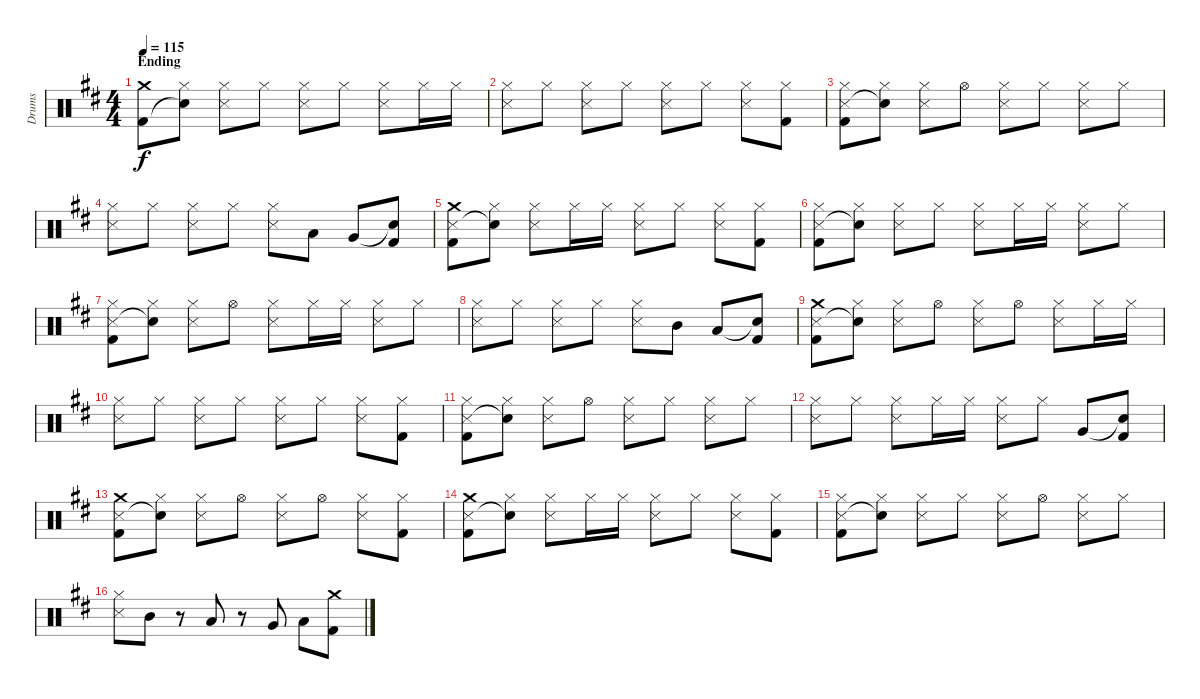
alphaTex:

\track ("Drums" "Drums") {instrument percussion}
\staff {score}
\articulation defaults
\ts (4 4)
\section ("" "Ending")
\tempo 115
\clef neutral
\ks d
("Crash medium (hit)" "Kick (hit) 2").8{dy f} ("Hi-Hat (closed)" "Snare (hit)"{t}).8 ("Hi-Hat (closed)" "Snare (side stick) 3").8 "Hi-Hat (closed)".8 ("Hi-Hat (closed)" "Snare (side stick) 3").8 "Hi-Hat (closed)".8 ("Hi-Hat (closed)" "Snare (side stick) 3").8 "Hi-Hat (closed)".16 "Hi-Hat (closed)".16 |
("Hi-Hat (closed)" "Snare (side stick) 3").8 "Hi-Hat (closed)".8 ("Hi-Hat (closed)" "Snare (side stick) 3").8 "Hi-Hat (closed)".8 ("Hi-Hat (closed)" "Snare (side stick) 3").8 "Hi-Hat (closed)".8 ("Hi-Hat (closed)" "Snare (side stick) 3").8 ("Hi-Hat (closed)" "Kick (hit) 2").8 |
("Hi-Hat (closed)" "Snare (side stick) 3" "Kick (hit) 2").8 ("Hi-Hat (closed)" "Snare (hit)"{t}).8 ("Hi-Hat (closed)" "Snare (side stick) 3").8 "Hi-Hat (open)".8 ("Hi-Hat (closed)" "Snare (side stick) 3").8 "Hi-Hat (closed)".8 ("Hi-Hat (closed)" "Snare (side stick) 3").8 "Hi-Hat (closed)".8 |
("Hi-Hat (closed)" "Snare (side stick) 3").8 "Hi-Hat (closed)".8 ("Hi-Hat (closed)" "Snare (side stick) 3").8 "Hi-Hat (closed)".8 ("Hi-Hat (closed)" "Snare (side stick) 3").8 "Low Tom (hit)".8 "Very Low Tom (hit)".8 ("Snare (hit)"{t} "Kick (hit) 2").8 |
("Crash medium (hit)" "Snare (side stick) 3" "Kick (hit) 2").8 ("Hi-Hat (closed)" "Snare (hit)"{t}).8 ("Hi-Hat (closed)" "Snare (side stick) 3").8 "Hi-Hat (closed)".16 "Hi-Hat (closed)".16 ("Hi-Hat (closed)" "Snare (side stick) 3").8 "Hi-Hat (closed)".8 ("Hi-Hat (closed)" "Snare (side stick) 3").8 ("Hi-Hat (closed)" "Kick (hit) 2").8 |
("Hi-Hat (closed)" "Snare (side stick) 3" "Kick (hit) 2").8 ("Hi-Hat (closed)" "Snare (hit)"{t}).8 ("Hi-Hat (closed)" "Snare (side stick) 3").8 "Hi-Hat (closed)".8 ("Hi-Hat (closed)" "Snare (side stick) 3").8 "Hi-Hat (closed)".16 "Hi-Hat (closed)".16 ("Hi-Hat (closed)" "Snare (side stick) 3").8 "Hi-Hat (closed)".8 |
("Hi-Hat (closed)" "Snare (side stick) 3" "Kick (hit) 2").8 ("Hi-Hat (closed)" "Snare (hit)"{t}).8 ("Hi-Hat (closed)" "Snare (side stick) 3").8 "Hi-Hat (open)".8 ("Hi-Hat (closed)" "Snare (side stick) 3").8 "Hi-Hat (closed)".16 "Hi-Hat (closed)".16 ("Hi-Hat (closed)" "Snare (side stick) 3").8 "Hi-Hat (closed)".8 |
("Hi-Hat (closed)" "Snare (side stick) 3").8 "Hi-Hat (closed)".8 ("Hi-Hat (closed)" "Snare (side stick) 3").8 "Hi-Hat (closed)".8 ("Hi-Hat (closed)" "Snare (side stick) 3").8 "Mid Tom (hit)".8 "Low Tom (hit)".8 ("Snare (hit)"{t} "Kick (hit) 2").8 |
("Crash medium (hit)" "Snare (side stick) 3" "Kick (hit) 2").8 ("Hi-Hat (closed)" "Snare (hit)"{t}).8 ("Hi-Hat (closed)" "Snare (side stick) 3").8 "Hi-Hat (open)".8 ("Hi-Hat (closed)" "Snare (side stick) 3").8 "Hi-Hat (open)".8 ("Hi-Hat (closed)" "Snare (side stick) 3").8 "Hi-Hat (closed)".16 "Hi-Hat (closed)".16 |
("Hi-Hat (closed)" "Snare (side stick) 3").8 "Hi-Hat (closed)".8 ("Hi-Hat (closed)" "Snare (side stick) 3").8 "Hi-Hat (closed)".8 ("Hi-Hat (closed)" "Snare (side stick) 3").8 "Hi-Hat (closed)".8 ("Hi-Hat (closed)" "Snare (side stick) 3").8 ("Hi-Hat (closed)" "Kick (hit) 2").8 |
("Hi-Hat (closed)" "Snare (side stick) 3" "Kick (hit) 2").8 ("Hi-Hat (closed)" "Snare (hit)"{t}).8 ("Hi-Hat (closed)" "Snare (side stick) 3").8 "Hi-Hat (open)".8 ("Hi-Hat (closed)" "Snare (side stick) 3").8 "Hi-Hat (closed)".8 ("Hi-Hat (closed)" "Snare (side stick) 3").8 "Hi-Hat (closed)".8 |
("Hi-Hat (closed)" "Snare (side stick) 3").8 "Hi-Hat (closed)".8 ("Hi-Hat (closed)" "Snare (side stick) 3").8 "Hi-Hat (closed)".16 "Hi-Hat (closed)".16 ("Hi-Hat (closed)" "Snare (side stick) 3").8 "Hi-Hat (closed)".8 "Very Low Tom (hit)".8 ("Snare (hit)"{t} "Kick (hit) 2").8 |
("Crash medium (hit)" "Snare (side stick) 3" "Kick (hit) 2").8 ("Hi-Hat (closed)" "Snare (hit)"{t}).8 ("Hi-Hat (closed)" "Snare (side stick) 3").8 "Hi-Hat (open)".8 ("Hi-Hat (closed)" "Snare (side stick) 3").8 "Hi-Hat (open)".8 ("Hi-Hat (closed)" "Snare (side stick) 3").8 ("Hi-Hat (closed)" "Kick (hit) 2").8 |
("Crash medium (hit)" "Snare (side stick) 3" "Kick (hit) 2").8 ("Hi-Hat (closed)" "Snare (hit)"{t}).8 ("Hi-Hat (closed)" "Snare (side stick) 3").8 "Hi-Hat (closed)".16 "Hi-Hat (closed)".16 ("Hi-Hat (closed)" "Snare (side stick) 3").8 "Hi-Hat (closed)".8 ("Hi-Hat (closed)" "Snare (side stick) 3").8 ("Hi-Hat (closed)" "Kick (hit) 2").8 |
("Hi-Hat (closed)" "Snare (side stick) 3" "Kick (hit) 2").8 ("Hi-Hat (closed)" "Snare (hit)"{t}).8 ("Hi-Hat (closed)" "Snare (side stick) 3").8 "Hi-Hat (closed)".8 ("Hi-Hat (closed)" "Snare (side stick) 3").8 "Hi-Hat (open)".8 ("Hi-Hat (closed)" "Snare (side stick) 3").8 "Hi-Hat (closed)".8 |
("Hi-Hat (closed)" "Snare (side stick) 3").8 "Mid Tom (hit)".8 r.8 "Low Tom (hit)".8 r.8 "Very Low Tom (hit)".8 "Low Floor Tom (hit)".8 ("Crash medium (hit)" "Kick (hit) 2").8
